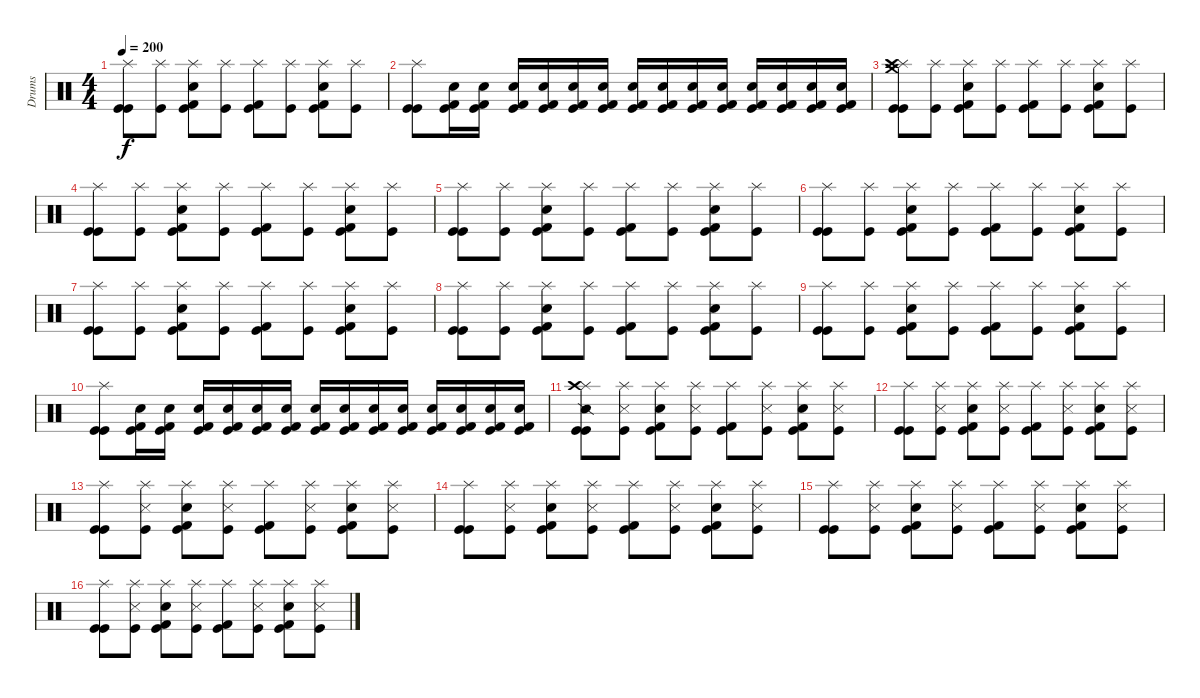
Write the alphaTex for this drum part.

\track ("Drums" "Drums") {instrument percussion}
\staff {score}
\articulation defaults
\ts (4 4)
\tempo 200
\clef neutral
\ks c
("Splash (hit)" "Kick (hit)" "Kick (hit)").8{dy f} ("Splash (hit)" "Kick (hit)").8 ("Splash (hit)" "Snare (hit) 2" "Kick (hit) 2" "Kick (hit)").8 ("Splash (hit)" "Kick (hit)").8 ("Splash (hit)" "Kick (hit) 2" "Kick (hit)").8 ("Splash (hit)" "Kick (hit)").8 ("Splash (hit)" "Snare (hit) 2" "Kick (hit) 2" "Kick (hit)").8 ("Splash (hit)" "Kick (hit)").8 |
("Splash (hit)" "Kick (hit)" "Kick (hit)").8 ("Snare (hit) 2" "Kick (hit) 2" "Kick (hit)").16 ("Snare (hit) 2" "Kick (hit) 2" "Kick (hit)").16 ("Snare (hit) 2" "Kick (hit) 2" "Kick (hit)").16 ("Snare (hit) 2" "Kick (hit) 2" "Kick (hit)").16 ("Snare (hit) 2" "Kick (hit) 2" "Kick (hit)").16 ("Snare (hit) 2" "Kick (hit) 2" "Kick (hit)").16 ("Snare (hit) 2" "Kick (hit) 2" "Kick (hit)").16 ("Snare (hit) 2" "Kick (hit) 2" "Kick (hit)").16 ("Snare (hit) 2" "Kick (hit) 2" "Kick (hit)").16 ("Snare (hit) 2" "Kick (hit) 2" "Kick (hit)").16 ("Snare (hit) 2" "Kick (hit) 2" "Kick (hit)").16 ("Snare (hit) 2" "Kick (hit) 2" "Kick (hit)").16 ("Snare (hit) 2" "Kick (hit) 2" "Kick (hit)").16 ("Snare (hit) 2" "Kick (hit) 2" "Kick (hit)").16 |
("Splash (hit)" "Crash high (hit)" "Crash medium (hit)" "Kick (hit)" "Kick (hit)").8 ("Splash (hit)" "Kick (hit)").8 ("Splash (hit)" "Snare (hit) 2" "Kick (hit) 2" "Kick (hit)").8 ("Splash (hit)" "Kick (hit)").8 ("Splash (hit)" "Kick (hit) 2" "Kick (hit)").8 ("Splash (hit)" "Kick (hit)").8 ("Splash (hit)" "Snare (hit) 2" "Kick (hit) 2" "Kick (hit)").8 ("Splash (hit)" "Kick (hit)").8 |
("Splash (hit)" "Kick (hit)" "Kick (hit)").8 ("Splash (hit)" "Kick (hit)").8 ("Splash (hit)" "Snare (hit) 2" "Kick (hit) 2" "Kick (hit)").8 ("Splash (hit)" "Kick (hit)").8 ("Splash (hit)" "Kick (hit) 2" "Kick (hit)").8 ("Splash (hit)" "Kick (hit)").8 ("Splash (hit)" "Snare (hit) 2" "Kick (hit) 2" "Kick (hit)").8 ("Splash (hit)" "Kick (hit)").8 |
("Splash (hit)" "Kick (hit)" "Kick (hit)").8 ("Splash (hit)" "Kick (hit)").8 ("Splash (hit)" "Snare (hit) 2" "Kick (hit) 2" "Kick (hit)").8 ("Splash (hit)" "Kick (hit)").8 ("Splash (hit)" "Kick (hit) 2" "Kick (hit)").8 ("Splash (hit)" "Kick (hit)").8 ("Splash (hit)" "Snare (hit) 2" "Kick (hit) 2" "Kick (hit)").8 ("Splash (hit)" "Kick (hit)").8 |
("Splash (hit)" "Kick (hit)" "Kick (hit)").8 ("Splash (hit)" "Kick (hit)").8 ("Splash (hit)" "Snare (hit) 2" "Kick (hit) 2" "Kick (hit)").8 ("Splash (hit)" "Kick (hit)").8 ("Splash (hit)" "Kick (hit) 2" "Kick (hit)").8 ("Splash (hit)" "Kick (hit)").8 ("Splash (hit)" "Snare (hit) 2" "Kick (hit) 2" "Kick (hit)").8 ("Splash (hit)" "Kick (hit)").8 |
("Splash (hit)" "Kick (hit)" "Kick (hit)").8 ("Splash (hit)" "Kick (hit)").8 ("Splash (hit)" "Snare (hit) 2" "Kick (hit) 2" "Kick (hit)").8 ("Splash (hit)" "Kick (hit)").8 ("Splash (hit)" "Kick (hit) 2" "Kick (hit)").8 ("Splash (hit)" "Kick (hit)").8 ("Splash (hit)" "Snare (hit) 2" "Kick (hit) 2" "Kick (hit)").8 ("Splash (hit)" "Kick (hit)").8 |
("Splash (hit)" "Kick (hit)" "Kick (hit)").8 ("Splash (hit)" "Kick (hit)").8 ("Splash (hit)" "Snare (hit) 2" "Kick (hit) 2" "Kick (hit)").8 ("Splash (hit)" "Kick (hit)").8 ("Splash (hit)" "Kick (hit) 2" "Kick (hit)").8 ("Splash (hit)" "Kick (hit)").8 ("Splash (hit)" "Snare (hit) 2" "Kick (hit) 2" "Kick (hit)").8 ("Splash (hit)" "Kick (hit)").8 |
("Splash (hit)" "Kick (hit)" "Kick (hit)").8 ("Splash (hit)" "Kick (hit)").8 ("Splash (hit)" "Snare (hit) 2" "Kick (hit) 2" "Kick (hit)").8 ("Splash (hit)" "Kick (hit)").8 ("Splash (hit)" "Kick (hit) 2" "Kick (hit)").8 ("Splash (hit)" "Kick (hit)").8 ("Splash (hit)" "Snare (hit) 2" "Kick (hit) 2" "Kick (hit)").8 ("Splash (hit)" "Kick (hit)").8 |
("Splash (hit)" "Kick (hit)" "Kick (hit)").8 ("Snare (hit) 2" "Kick (hit) 2" "Kick (hit)").16 ("Snare (hit) 2" "Kick (hit) 2" "Kick (hit)").16 ("Snare (hit) 2" "Kick (hit) 2" "Kick (hit)").16 ("Snare (hit) 2" "Kick (hit) 2" "Kick (hit)").16 ("Snare (hit) 2" "Kick (hit) 2" "Kick (hit)").16 ("Snare (hit) 2" "Kick (hit) 2" "Kick (hit)").16 ("Snare (hit) 2" "Kick (hit) 2" "Kick (hit)").16 ("Snare (hit) 2" "Kick (hit) 2" "Kick (hit)").16 ("Snare (hit) 2" "Kick (hit) 2" "Kick (hit)").16 ("Snare (hit) 2" "Kick (hit) 2" "Kick (hit)").16 ("Snare (hit) 2" "Kick (hit) 2" "Kick (hit)").16 ("Snare (hit) 2" "Kick (hit) 2" "Kick (hit)").16 ("Snare (hit) 2" "Kick (hit) 2" "Kick (hit)").16 ("Snare (hit) 2" "Kick (hit) 2" "Kick (hit)").16 |
("Splash (hit)" "Crash high (hit)" "Snare (side stick) 2" "Kick (hit)" "Kick (hit)").8 ("Splash (hit)" "Snare (side stick) 3" "Kick (hit)").8 ("Splash (hit)" "Snare (hit) 2" "Kick (hit) 2" "Kick (hit)").8 ("Splash (hit)" "Snare (side stick) 3" "Kick (hit)").8 ("Splash (hit)" "Kick (hit) 2" "Kick (hit)").8 ("Splash (hit)" "Snare (side stick) 3" "Kick (hit)").8 ("Splash (hit)" "Snare (hit) 2" "Kick (hit) 2" "Kick (hit)").8 ("Splash (hit)" "Snare (side stick) 3" "Kick (hit)").8 |
("Splash (hit)" "Kick (hit)" "Kick (hit)").8 ("Splash (hit)" "Snare (side stick) 3" "Kick (hit)").8 ("Splash (hit)" "Snare (hit) 2" "Kick (hit) 2" "Kick (hit)").8 ("Splash (hit)" "Snare (side stick) 3" "Kick (hit)").8 ("Splash (hit)" "Kick (hit) 2" "Kick (hit)").8 ("Splash (hit)" "Snare (side stick) 3" "Kick (hit)").8 ("Splash (hit)" "Snare (hit) 2" "Kick (hit) 2" "Kick (hit)").8 ("Splash (hit)" "Snare (side stick) 3" "Kick (hit)").8 |
("Splash (hit)" "Kick (hit)" "Kick (hit)").8 ("Splash (hit)" "Snare (side stick) 3" "Kick (hit)").8 ("Splash (hit)" "Snare (hit) 2" "Kick (hit) 2" "Kick (hit)").8 ("Splash (hit)" "Snare (side stick) 3" "Kick (hit)").8 ("Splash (hit)" "Kick (hit) 2" "Kick (hit)").8 ("Splash (hit)" "Snare (side stick) 3" "Kick (hit)").8 ("Splash (hit)" "Snare (hit) 2" "Kick (hit) 2" "Kick (hit)").8 ("Splash (hit)" "Snare (side stick) 3" "Kick (hit)").8 |
("Splash (hit)" "Kick (hit)" "Kick (hit)").8 ("Splash (hit)" "Snare (side stick) 3" "Kick (hit)").8 ("Splash (hit)" "Snare (hit) 2" "Kick (hit) 2" "Kick (hit)").8 ("Splash (hit)" "Snare (side stick) 3" "Kick (hit)").8 ("Splash (hit)" "Kick (hit) 2" "Kick (hit)").8 ("Splash (hit)" "Snare (side stick) 3" "Kick (hit)").8 ("Splash (hit)" "Snare (hit) 2" "Kick (hit) 2" "Kick (hit)").8 ("Splash (hit)" "Snare (side stick) 3" "Kick (hit)").8 |
("Splash (hit)" "Kick (hit)" "Kick (hit)").8 ("Splash (hit)" "Snare (side stick) 3" "Kick (hit)").8 ("Splash (hit)" "Snare (hit) 2" "Kick (hit) 2" "Kick (hit)").8 ("Splash (hit)" "Snare (side stick) 3" "Kick (hit)").8 ("Splash (hit)" "Kick (hit) 2" "Kick (hit)").8 ("Splash (hit)" "Snare (side stick) 3" "Kick (hit)").8 ("Splash (hit)" "Snare (hit) 2" "Kick (hit) 2" "Kick (hit)").8 ("Splash (hit)" "Snare (side stick) 3" "Kick (hit)").8 |
("Splash (hit)" "Kick (hit)" "Kick (hit)").8 ("Splash (hit)" "Snare (side stick) 3" "Kick (hit)").8 ("Splash (hit)" "Snare (hit) 2" "Kick (hit) 2" "Kick (hit)").8 ("Splash (hit)" "Snare (side stick) 3" "Kick (hit)").8 ("Splash (hit)" "Kick (hit) 2" "Kick (hit)").8 ("Splash (hit)" "Snare (side stick) 3" "Kick (hit)").8 ("Splash (hit)" "Snare (hit) 2" "Kick (hit) 2" "Kick (hit)").8 ("Splash (hit)" "Snare (side stick) 3" "Kick (hit)").8
